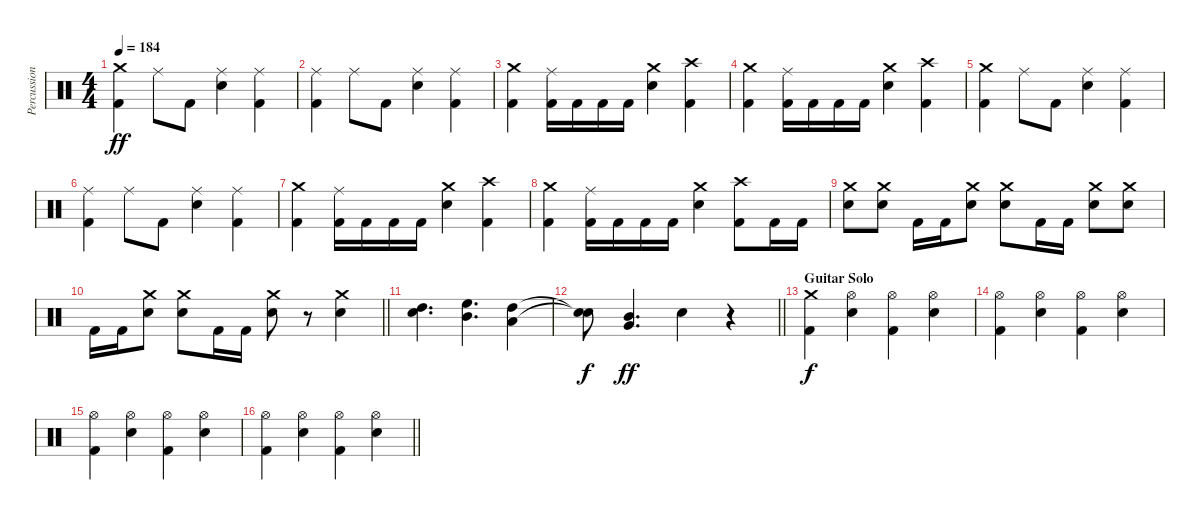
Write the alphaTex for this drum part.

\track ("Percussion" "Percussion") {instrument percussion}
\staff {score}
\articulation defaults
\ts (4 4)
\tempo 184
\clef neutral
\ks c
("Crash medium (hit)" "Kick (hit) 2").4{dy ff} "Ride (middle)".8 "Kick (hit) 2".8 ("Ride (middle)" "Electric Snare (hit)").4 ("Ride (middle)" "Kick (hit) 2").4 |
("Ride (middle)" "Kick (hit) 2").4 "Ride (middle)".8 "Kick (hit) 2".8 ("Ride (middle)" "Electric Snare (hit)").4 ("Ride (middle)" "Kick (hit) 2").4 |
("Crash medium (hit)" "Kick (hit) 2").4 ("Ride (middle)" "Kick (hit) 2").16 "Kick (hit) 2".16 "Kick (hit) 2".16 "Kick (hit) 2".16 ("Crash medium (hit)" "Electric Snare (hit)").4 ("Crash high (hit)" "Kick (hit) 2").4 |
("Crash medium (hit)" "Kick (hit) 2").4 ("Ride (middle)" "Kick (hit) 2").16 "Kick (hit) 2".16 "Kick (hit) 2".16 "Kick (hit) 2".16 ("Crash medium (hit)" "Electric Snare (hit)").4 ("Crash high (hit)" "Kick (hit) 2").4 |
("Crash medium (hit)" "Kick (hit) 2").4 "Ride (middle)".8 "Kick (hit) 2".8 ("Ride (middle)" "Electric Snare (hit)").4 ("Ride (middle)" "Kick (hit) 2").4 |
("Ride (middle)" "Kick (hit) 2").4 "Ride (middle)".8 "Kick (hit) 2".8 ("Ride (middle)" "Electric Snare (hit)").4 ("Ride (middle)" "Kick (hit) 2").4 |
("Crash medium (hit)" "Kick (hit) 2").4 ("Ride (middle)" "Kick (hit) 2").16 "Kick (hit) 2".16 "Kick (hit) 2".16 "Kick (hit) 2".16 ("Crash medium (hit)" "Electric Snare (hit)").4 ("Crash high (hit)" "Kick (hit) 2").4 |
("Crash medium (hit)" "Kick (hit) 2").4 ("Ride (middle)" "Kick (hit) 2").16 "Kick (hit) 2".16 "Kick (hit) 2".16 "Kick (hit) 2".16 ("Crash medium (hit)" "Electric Snare (hit)").4 ("Crash high (hit)" "Kick (hit) 2").8 "Kick (hit) 2".16 "Kick (hit) 2".16 |
("Crash medium (hit)" "Electric Snare (hit)").8 ("Crash medium (hit)" "Electric Snare (hit)").8 "Kick (hit) 2".16 "Kick (hit) 2".16 ("Crash medium (hit)" "Electric Snare (hit)").8 ("Crash medium (hit)" "Electric Snare (hit)").8 "Kick (hit) 2".16 "Kick (hit) 2".16 ("Crash medium (hit)" "Electric Snare (hit)").8 ("Crash medium (hit)" "Electric Snare (hit)").8 |
\barLineRight lightlight "Kick (hit) 2".16 "Kick (hit) 2".16
("Crash medium (hit)" "Electric Snare (hit)").8 ("Crash medium (hit)" "Electric Snare (hit)").8 "Kick (hit) 2".16 "Kick (hit) 2".16 ("Crash medium (hit)" "Electric Snare (hit)").8 r.8 ("Crash medium (hit)" "Electric Snare (hit)").4 |
("Electric Snare (hit)" "High Tom (hit)").4{d} ("High Floor Tom (hit)" "Mid Tom (hit)").4{d} ("High Tom (hit)" "Low Tom (hit)").4 |
\barLineRight lightlight
("Snare (hit)"{t} "Snare (hit)"{t}).8{dy f} ("Mid Tom (hit)" "Very Low Tom (hit)").4{d dy ff} "Electric Snare (hit)".4 r.4 |
\section ("" "Guitar Solo")
("Crash medium (hit)" "Kick (hit) 2").4{dy f} ("Hi-Hat (open)" "Electric Snare (hit)").4 ("Hi-Hat (open)" "Kick (hit) 2").4 ("Hi-Hat (open)" "Electric Snare (hit)").4 |
("Hi-Hat (open)" "Kick (hit) 2").4 ("Hi-Hat (open)" "Electric Snare (hit)").4 ("Hi-Hat (open)" "Kick (hit) 2").4 ("Hi-Hat (open)" "Electric Snare (hit)").4 |
("Hi-Hat (open)" "Kick (hit) 2").4 ("Hi-Hat (open)" "Electric Snare (hit)").4 ("Hi-Hat (open)" "Kick (hit) 2").4 ("Hi-Hat (open)" "Electric Snare (hit)").4 |
\barLineRight lightlight
("Hi-Hat (open)" "Kick (hit) 2").4 ("Hi-Hat (open)" "Electric Snare (hit)").4 ("Hi-Hat (open)" "Kick (hit) 2").4 ("Hi-Hat (open)" "Electric Snare (hit)").4
